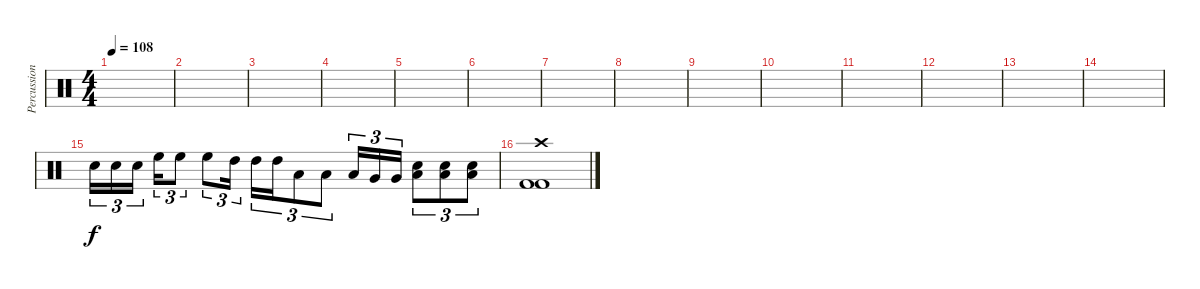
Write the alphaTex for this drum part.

\track ("Percussion" "Percussion") {instrument percussion}
\staff {score}
\articulation defaults
\ts (4 4)
\tempo 108
\clef neutral
\ks c
|
|
|
|
|
|
|
|
|
|
|
|
|
|
"Electric Snare (hit)".16{tu (3 2)} "Electric Snare (hit)".16{tu (3 2)} "Electric Snare (hit)".16{tu (3 2)} "High Floor Tom (hit)".16{tu (3 2)} "High Floor Tom (hit)".8{tu (3 2)} "High Floor Tom (hit)".8{tu (3 2)} "High Tom (hit)".16{tu (3 2)} "High Tom (hit)".16{tu (3 2)} "High Tom (hit)".16{tu (3 2)} "Low Tom (hit)".8{tu (3 2)} "Low Tom (hit)".8{tu (3 2)} "Low Tom (hit)".16{tu (3 2)} "Very Low Tom (hit)".16{tu (3 2)} "Very Low Tom (hit)".16{tu (3 2)} ("Low Floor Tom (hit)" "Electric Snare (hit)").8{tu (3 2)} ("Low Floor Tom (hit)" "Electric Snare (hit)").8{tu (3 2)} ("Low Floor Tom (hit)" "Electric Snare (hit)").8{tu (3 2)} |
("Crash high (hit)" "Kick (hit) 2" "Kick (hit) 2").1
